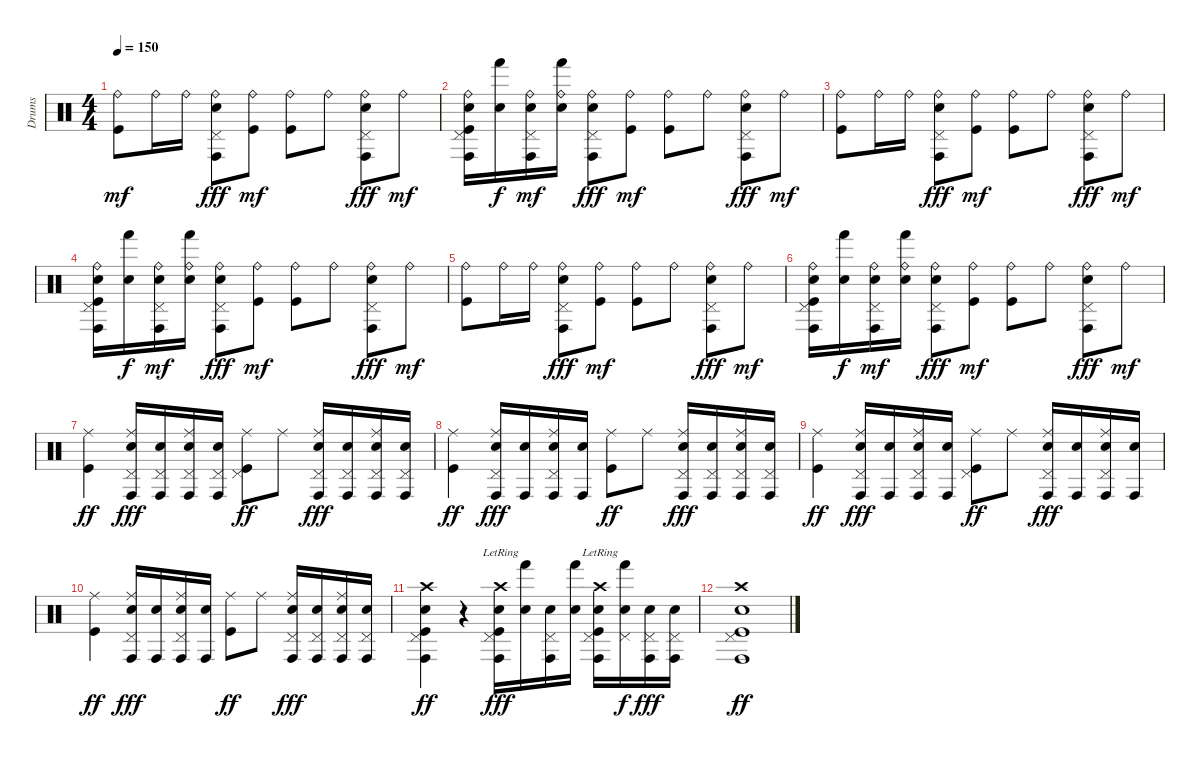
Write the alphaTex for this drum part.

\track ("Drums" "Drums") {instrument percussion}
\staff {score}
\articulation defaults
\ts (4 4)
\tempo 150
\clef neutral
\ks c
("Ride (bell)" "Kick (hit)").8{dy mf} "Ride (bell)".16 "Ride (bell)".16 ("Ride (bell)" "Pedal Hi-Hat (hit)" "Conga high (hit)" "Electric Snare (hit)").8{dy fff} ("Ride (bell)" "Kick (hit)").8{dy mf} ("Ride (bell)" "Kick (hit)").8 "Ride (bell)".8 ("Ride (bell)" "Pedal Hi-Hat (hit)" "Conga high (hit)" "Electric Snare (hit)").8{dy fff} "Ride (bell)".8{dy mf} |
("Ride (bell)" "Pedal Hi-Hat (hit)" "Conga high (hit)" "Electric Snare (hit)" "Kick (hit)").16 ("Hand (hit)" "Electric Snare (hit)").16{dy f} ("Ride (bell)" "Pedal Hi-Hat (hit)" "Conga high (hit)" "Electric Snare (hit)").16{dy mf} ("Ride (bell)" "Hand (hit)" "Electric Snare (hit)").16 ("Ride (bell)" "Pedal Hi-Hat (hit)" "Conga high (hit)" "Electric Snare (hit)").8{dy fff} ("Ride (bell)" "Kick (hit)").8{dy mf} ("Ride (bell)" "Kick (hit)").8 "Ride (bell)".8 ("Ride (bell)" "Pedal Hi-Hat (hit)" "Conga high (hit)" "Electric Snare (hit)").8{dy fff} "Ride (bell)".8{dy mf} |
("Ride (bell)" "Kick (hit)").8 "Ride (bell)".16 "Ride (bell)".16 ("Ride (bell)" "Pedal Hi-Hat (hit)" "Conga high (hit)" "Electric Snare (hit)").8{dy fff} ("Ride (bell)" "Kick (hit)").8{dy mf} ("Ride (bell)" "Kick (hit)").8 "Ride (bell)".8 ("Ride (bell)" "Pedal Hi-Hat (hit)" "Conga high (hit)" "Electric Snare (hit)").8{dy fff} "Ride (bell)".8{dy mf} |
("Ride (bell)" "Pedal Hi-Hat (hit)" "Conga high (hit)" "Electric Snare (hit)" "Kick (hit)").16 ("Hand (hit)" "Electric Snare (hit)").16{dy f} ("Ride (bell)" "Pedal Hi-Hat (hit)" "Conga high (hit)" "Electric Snare (hit)").16{dy mf} ("Ride (bell)" "Hand (hit)" "Electric Snare (hit)").16 ("Ride (bell)" "Pedal Hi-Hat (hit)" "Conga high (hit)" "Electric Snare (hit)").8{dy fff} ("Ride (bell)" "Kick (hit)").8{dy mf} ("Ride (bell)" "Kick (hit)").8 "Ride (bell)".8 ("Ride (bell)" "Pedal Hi-Hat (hit)" "Conga high (hit)" "Electric Snare (hit)").8{dy fff} "Ride (bell)".8{dy mf} |
("Ride (bell)" "Kick (hit)").8 "Ride (bell)".16 "Ride (bell)".16 ("Ride (bell)" "Pedal Hi-Hat (hit)" "Conga high (hit)" "Electric Snare (hit)").8{dy fff} ("Ride (bell)" "Kick (hit)").8{dy mf} ("Ride (bell)" "Kick (hit)").8 "Ride (bell)".8 ("Ride (bell)" "Pedal Hi-Hat (hit)" "Conga high (hit)" "Electric Snare (hit)").8{dy fff} "Ride (bell)".8{dy mf} |
("Ride (bell)" "Pedal Hi-Hat (hit)" "Conga high (hit)" "Electric Snare (hit)" "Kick (hit)").16 ("Hand (hit)" "Electric Snare (hit)").16{dy f} ("Ride (bell)" "Pedal Hi-Hat (hit)" "Conga high (hit)" "Electric Snare (hit)").16{dy mf} ("Ride (bell)" "Hand (hit)" "Electric Snare (hit)").16 ("Ride (bell)" "Pedal Hi-Hat (hit)" "Conga high (hit)" "Electric Snare (hit)").8{dy fff} ("Ride (bell)" "Kick (hit)").8{dy mf} ("Ride (bell)" "Kick (hit)").8 "Ride (bell)".8 ("Ride (bell)" "Pedal Hi-Hat (hit)" "Conga high (hit)" "Electric Snare (hit)").8{dy fff} "Ride (bell)".8{dy mf} |
("Ride (middle)" "Kick (hit)").4{dy ff} ("Ride (middle)" "Pedal Hi-Hat (hit)" "Conga high (hit)" "Electric Snare (hit)").16{dy fff} ("Pedal Hi-Hat (hit)" "Conga high (hit)" "Electric Snare (hit)").16 ("Ride (middle)" "Pedal Hi-Hat (hit)" "Conga high (hit)" "Electric Snare (hit)").16 ("Pedal Hi-Hat (hit)" "Conga high (hit)" "Electric Snare (hit)").16 ("Ride (middle)" "Pedal Hi-Hat (hit)" "Kick (hit)").8{dy ff} "Ride (middle)".8 ("Ride (middle)" "Pedal Hi-Hat (hit)" "Conga high (hit)" "Electric Snare (hit)").16{dy fff} ("Pedal Hi-Hat (hit)" "Conga high (hit)" "Electric Snare (hit)").16 ("Ride (middle)" "Pedal Hi-Hat (hit)" "Conga high (hit)" "Electric Snare (hit)").16 ("Pedal Hi-Hat (hit)" "Conga high (hit)" "Electric Snare (hit)").16 |
("Ride (middle)" "Kick (hit)").4{dy ff} ("Ride (middle)" "Pedal Hi-Hat (hit)" "Conga high (hit)" "Electric Snare (hit)").16{dy fff} ("Conga high (hit)" "Electric Snare (hit)").16 ("Ride (middle)" "Pedal Hi-Hat (hit)" "Conga high (hit)" "Electric Snare (hit)").16 ("Conga high (hit)" "Electric Snare (hit)").16 ("Ride (middle)" "Kick (hit)").8{dy ff} "Ride (middle)".8 ("Ride (middle)" "Pedal Hi-Hat (hit)" "Conga high (hit)" "Electric Snare (hit)").16{dy fff} ("Pedal Hi-Hat (hit)" "Conga high (hit)" "Electric Snare (hit)").16 ("Ride (middle)" "Pedal Hi-Hat (hit)" "Conga high (hit)" "Electric Snare (hit)").16 ("Pedal Hi-Hat (hit)" "Conga high (hit)" "Electric Snare (hit)").16 |
("Ride (middle)" "Kick (hit)").4{dy ff} ("Ride (middle)" "Pedal Hi-Hat (hit)" "Conga high (hit)" "Electric Snare (hit)").16{dy fff} ("Conga high (hit)" "Electric Snare (hit)").16 ("Ride (middle)" "Pedal Hi-Hat (hit)" "Conga high (hit)" "Electric Snare (hit)").16 ("Conga high (hit)" "Electric Snare (hit)").16 ("Ride (middle)" "Pedal Hi-Hat (hit)" "Kick (hit)").8{dy ff} "Ride (middle)".8 ("Ride (middle)" "Pedal Hi-Hat (hit)" "Conga high (hit)" "Electric Snare (hit)").16{dy fff} ("Conga high (hit)" "Electric Snare (hit)").16 ("Ride (middle)" "Pedal Hi-Hat (hit)" "Conga high (hit)" "Electric Snare (hit)").16 ("Conga high (hit)" "Electric Snare (hit)").16 |
("Ride (middle)" "Kick (hit)").4{dy ff} ("Ride (middle)" "Pedal Hi-Hat (hit)" "Conga high (hit)" "Electric Snare (hit)").16{dy fff} ("Conga high (hit)" "Electric Snare (hit)").16 ("Ride (middle)" "Pedal Hi-Hat (hit)" "Conga high (hit)" "Electric Snare (hit)").16 ("Conga high (hit)" "Electric Snare (hit)").16 ("Ride (middle)" "Kick (hit)").8{dy ff} "Ride (middle)".8 ("Ride (middle)" "Pedal Hi-Hat (hit)" "Conga high (hit)" "Electric Snare (hit)").16{dy fff} ("Pedal Hi-Hat (hit)" "Conga high (hit)" "Electric Snare (hit)").16 ("Ride (middle)" "Pedal Hi-Hat (hit)" "Conga high (hit)" "Electric Snare (hit)").16 ("Pedal Hi-Hat (hit)" "Conga high (hit)" "Electric Snare (hit)").16 |
("Crash high (hit)" "Pedal Hi-Hat (hit)" "Conga high (hit)" "Electric Snare (hit)" "Kick (hit)").4{dy ff} r.4 ("Crash high (hit)"{lr} "Pedal Hi-Hat (hit)" "Conga high (hit)" "Electric Snare (hit)" "Kick (hit)").16{dy fff} ("Hand (hit)" "Electric Snare (hit)").16 ("Pedal Hi-Hat (hit)" "Conga high (hit)" "Electric Snare (hit)").16 ("Hand (hit)" "Electric Snare (hit)").16 ("Crash high (hit)"{lr} "Pedal Hi-Hat (hit)" "Conga high (hit)" "Electric Snare (hit)" "Kick (hit)").16 ("Pedal Hi-Hat (hit)" "Hand (hit)" "Electric Snare (hit)").16{dy f} ("Pedal Hi-Hat (hit)" "Conga high (hit)" "Electric Snare (hit)").16{dy fff} ("Pedal Hi-Hat (hit)" "Conga high (hit)" "Electric Snare (hit)").16 |
("Crash high (hit)" "Pedal Hi-Hat (hit)" "Conga high (hit)" "Electric Snare (hit)" "Kick (hit)").1{dy ff}
